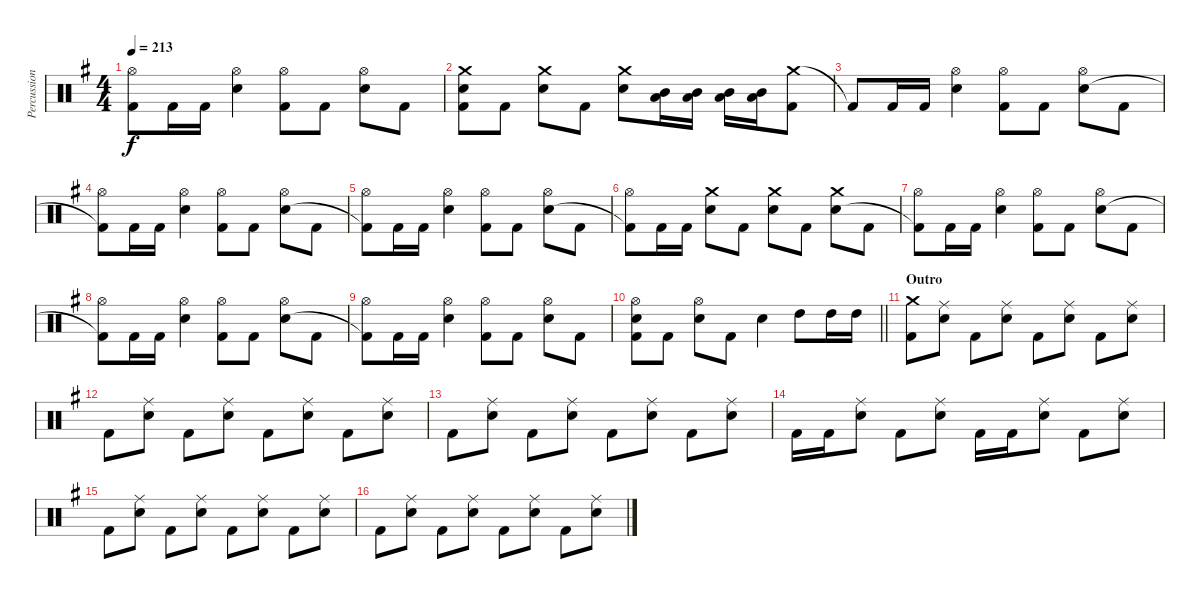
\track ("Percussion" "Percussion") {instrument percussion}
\staff {score}
\articulation defaults
\ts (4 4)
\tempo 213
\clef neutral
\ks eminor
("Hi-Hat (open)" "Kick (hit) 2"{t}).8{dy f} "Kick (hit) 2".16 "Kick (hit) 2".16 ("Hi-Hat (open)" "Snare (hit) 2").4 ("Hi-Hat (open)" "Kick (hit) 2").8 "Kick (hit) 2".8 ("Hi-Hat (open)" "Snare (hit) 2").8 "Kick (hit) 2".8 |
("Crash medium (hit)" "Snare (hit) 2" "Kick (hit) 2").8 "Kick (hit) 2".8 ("Crash medium (hit)" "Snare (hit) 2").8 "Kick (hit) 2".8 ("Crash medium (hit)" "Snare (hit) 2").8 ("Mid Tom (hit)" "Low Tom (hit)").16 ("Mid Tom (hit)" "Low Tom (hit)").16 ("Mid Tom (hit)" "Low Tom (hit)").16 ("Mid Tom (hit)" "Low Tom (hit)").16 ("Crash medium (hit)" "Kick (hit) 2").8 |
"Kick (hit) 2"{t}.8 "Kick (hit) 2".16 "Kick (hit) 2".16 ("Hi-Hat (open)" "Snare (hit) 2").4 ("Hi-Hat (open)" "Kick (hit) 2").8 "Kick (hit) 2".8 ("Hi-Hat (open)" "Snare (hit) 2").8 "Kick (hit) 2".8 |
("Hi-Hat (open)" "Kick (hit) 2"{t}).8 "Kick (hit) 2".16 "Kick (hit) 2".16 ("Hi-Hat (open)" "Snare (hit) 2").4 ("Hi-Hat (open)" "Kick (hit) 2").8 "Kick (hit) 2".8 ("Hi-Hat (open)" "Snare (hit) 2").8 "Kick (hit) 2".8 |
("Hi-Hat (open)" "Kick (hit) 2"{t}).8 "Kick (hit) 2".16 "Kick (hit) 2".16 ("Hi-Hat (open)" "Snare (hit) 2").4 ("Hi-Hat (open)" "Kick (hit) 2").8 "Kick (hit) 2".8 ("Hi-Hat (open)" "Snare (hit) 2").8 "Kick (hit) 2".8 |
("Hi-Hat (open)" "Kick (hit) 2"{t}).8 "Kick (hit) 2".16 "Kick (hit) 2".16 ("Crash medium (hit)" "Snare (hit) 2").8 "Kick (hit) 2".8 ("Crash medium (hit)" "Snare (hit) 2").8 "Kick (hit) 2".8 ("Crash medium (hit)" "Snare (hit) 2").8 "Kick (hit) 2".8 |
("Hi-Hat (open)" "Kick (hit) 2"{t}).8 "Kick (hit) 2".16 "Kick (hit) 2".16 ("Hi-Hat (open)" "Snare (hit) 2").4 ("Hi-Hat (open)" "Kick (hit) 2").8 "Kick (hit) 2".8 ("Hi-Hat (open)" "Snare (hit) 2").8 "Kick (hit) 2".8 |
("Hi-Hat (open)" "Kick (hit) 2"{t}).8 "Kick (hit) 2".16 "Kick (hit) 2".16 ("Hi-Hat (open)" "Snare (hit) 2").4 ("Hi-Hat (open)" "Kick (hit) 2").8 "Kick (hit) 2".8 ("Hi-Hat (open)" "Snare (hit) 2").8 "Kick (hit) 2".8 |
("Hi-Hat (open)" "Kick (hit) 2"{t}).8 "Kick (hit) 2".16 "Kick (hit) 2".16 ("Hi-Hat (open)" "Snare (hit) 2").4 ("Hi-Hat (open)" "Kick (hit) 2").8 "Kick (hit) 2".8 ("Hi-Hat (open)" "Snare (hit) 2").8 "Kick (hit) 2".8 |
\barLineRight lightlight
("Hi-Hat (open)" "Snare (hit) 2" "Kick (hit) 2").8 "Kick (hit) 2".8 ("Hi-Hat (open)" "Snare (hit) 2").8 "Kick (hit) 2".8 "Snare (hit) 2".4 "High Tom (hit)".8 "High Tom (hit)".16 "High Tom (hit)".16 |
\section ("" "Outro")
("Crash medium (hit)" "Kick (hit) 2").8 ("Ride (middle)" "Snare (hit) 2").8 "Kick (hit) 2".8 ("Ride (middle)" "Snare (hit) 2").8 "Kick (hit) 2".8 ("Ride (middle)" "Snare (hit) 2").8 "Kick (hit) 2".8 ("Ride (middle)" "Snare (hit) 2").8 |
"Kick (hit) 2".8 ("Ride (middle)" "Snare (hit) 2").8 "Kick (hit) 2".8 ("Ride (middle)" "Snare (hit) 2").8 "Kick (hit) 2".8 ("Ride (middle)" "Snare (hit) 2").8 "Kick (hit) 2".8 ("Ride (middle)" "Snare (hit) 2").8 |
"Kick (hit) 2".8 ("Ride (middle)" "Snare (hit) 2").8 "Kick (hit) 2".8 ("Ride (middle)" "Snare (hit) 2").8 "Kick (hit) 2".8 ("Ride (middle)" "Snare (hit) 2").8 "Kick (hit) 2".8 ("Ride (middle)" "Snare (hit) 2").8 |
"Kick (hit) 2".16 "Kick (hit) 2".16 ("Ride (middle)" "Snare (hit) 2").8 "Kick (hit) 2".8 ("Ride (middle)" "Snare (hit) 2").8 "Kick (hit) 2".16 "Kick (hit) 2".16 ("Ride (middle)" "Snare (hit) 2").8 "Kick (hit) 2".8 ("Ride (middle)" "Snare (hit) 2").8 |
"Kick (hit) 2".8 ("Ride (middle)" "Snare (hit) 2").8 "Kick (hit) 2".8 ("Ride (middle)" "Snare (hit) 2").8 "Kick (hit) 2".8 ("Ride (middle)" "Snare (hit) 2").8 "Kick (hit) 2".8 ("Ride (middle)" "Snare (hit) 2").8 |
"Kick (hit) 2".8 ("Ride (middle)" "Snare (hit) 2").8 "Kick (hit) 2".8 ("Ride (middle)" "Snare (hit) 2").8 "Kick (hit) 2".8 ("Ride (middle)" "Snare (hit) 2").8 "Kick (hit) 2".8 ("Ride (middle)" "Snare (hit) 2").8
